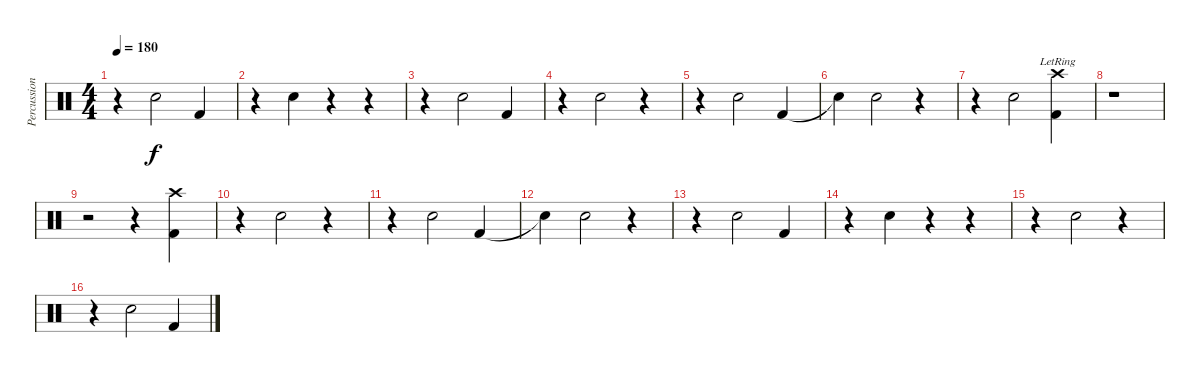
\track ("Percussion" "Percussion") {instrument percussion}
\staff {score}
\articulation defaults
\ts (4 4)
\tempo 180
\clef neutral
\ks c
r.4{dy f} "Electric Snare (hit)".2 "Kick (hit) 2".4 |
r.4 "Electric Snare (hit)".4 r.4 r.4 |
r.4 "Electric Snare (hit)".2 "Kick (hit) 2".4 |
r.4 "Electric Snare (hit)".2 r.4 |
r.4 "Electric Snare (hit)".2 "Kick (hit) 2".4 |
"Snare (hit)"{t}.4 "Electric Snare (hit)".2 r.4 |
r.4 "Electric Snare (hit)".2 ("Kick (hit) 2" "Crash high (hit)"{lr}).4 |
r.1 |
r.2 r.4 ("Kick (hit) 2" "Crash high (hit)").4 |
r.4 "Electric Snare (hit)".2 r.4 |
r.4 "Electric Snare (hit)".2 "Kick (hit) 2".4 |
"Snare (hit)"{t}.4 "Electric Snare (hit)".2 r.4 |
r.4 "Electric Snare (hit)".2 "Kick (hit) 2".4 |
r.4 "Electric Snare (hit)".4 r.4 r.4 |
r.4 "Electric Snare (hit)".2 r.4 |
r.4 "Electric Snare (hit)".2 "Kick (hit) 2".4
